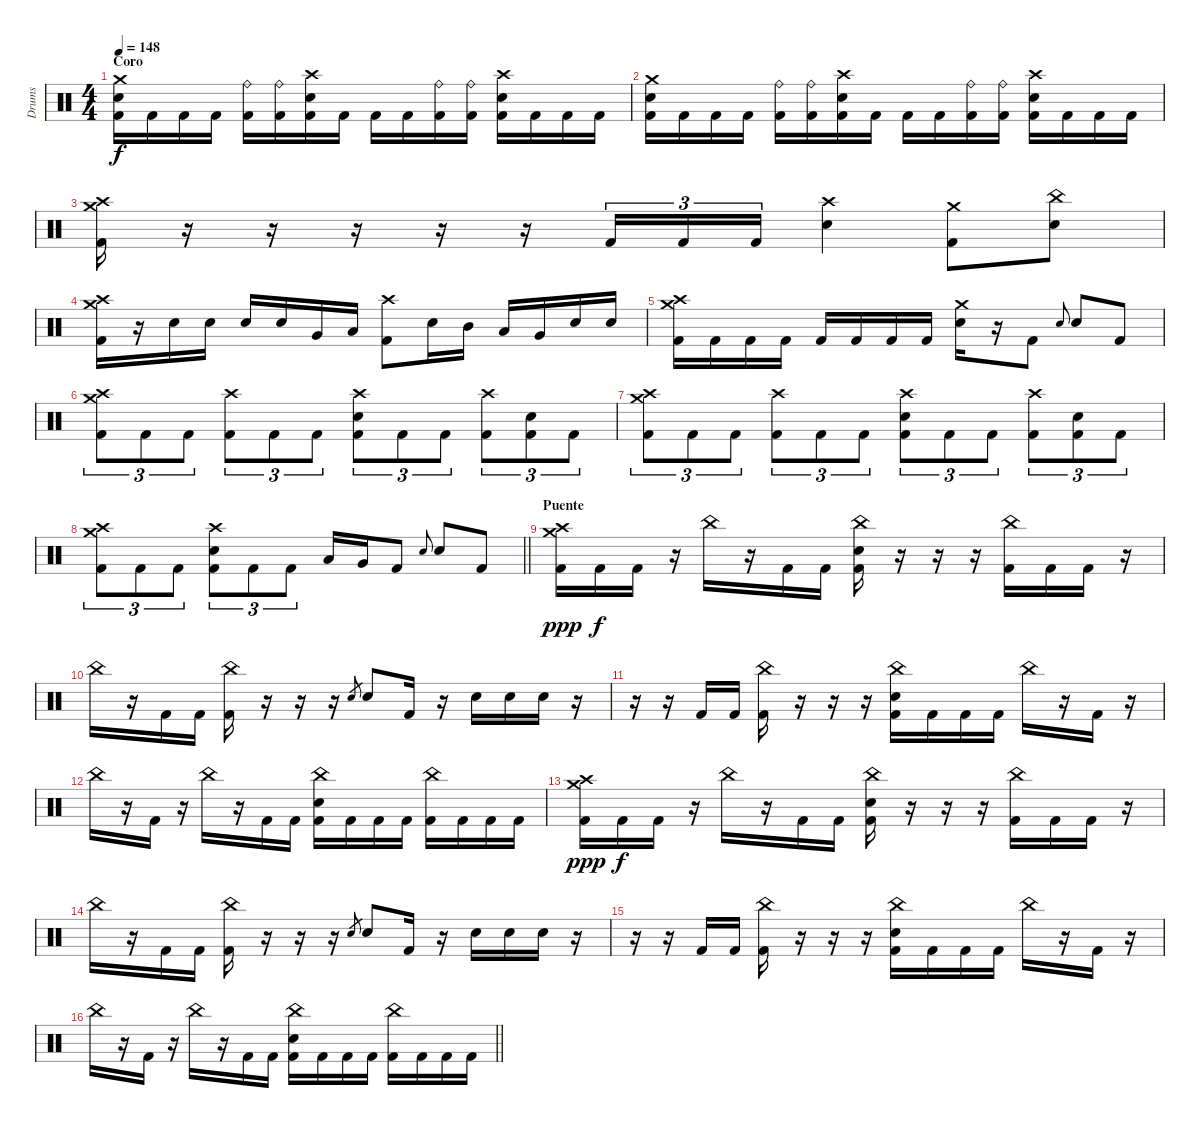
\track ("Drums" "Drums") {instrument percussion}
\staff {score}
\articulation defaults
\ts (4 4)
\section ("" "Coro")
\tempo 148
\clef neutral
\ks c
("Crash medium (hit)" "Electric Snare (hit)" "Kick (hit) 2").16{dy f} "Kick (hit) 2".16 "Kick (hit) 2".16 "Kick (hit) 2".16 ("Ride (bell)" "Kick (hit) 2").16 ("Ride (bell)" "Kick (hit) 2").16 ("Crash high (hit)" "Electric Snare (hit)" "Kick (hit) 2").16 "Kick (hit) 2".16 "Kick (hit) 2".16 "Kick (hit) 2".16 ("Ride (bell)" "Kick (hit) 2").16 ("Ride (bell)" "Kick (hit) 2").16 ("Crash high (hit)" "Electric Snare (hit)" "Kick (hit) 2").16 "Kick (hit) 2".16 "Kick (hit) 2".16 "Kick (hit) 2".16 |
("Crash medium (hit)" "Electric Snare (hit)" "Kick (hit) 2").16 "Kick (hit) 2".16 "Kick (hit) 2".16 "Kick (hit) 2".16 ("Ride (bell)" "Kick (hit) 2").16 ("Ride (bell)" "Kick (hit) 2").16 ("Crash high (hit)" "Electric Snare (hit)" "Kick (hit) 2").16 "Kick (hit) 2".16 "Kick (hit) 2".16 "Kick (hit) 2".16 ("Ride (bell)" "Kick (hit) 2").16 ("Ride (bell)" "Kick (hit) 2").16 ("Crash high (hit)" "Electric Snare (hit)" "Kick (hit) 2").16 "Kick (hit) 2".16 "Kick (hit) 2".16 "Kick (hit) 2".16 |
("Crash high (hit)" "Crash medium (hit)" "Kick (hit) 2").16 r.16 r.16 r.16 r.16 r.16 "Kick (hit) 2".16{tu (3 2)} "Kick (hit) 2".16{tu (3 2)} "Kick (hit) 2".16{tu (3 2)} ("Crash high (hit)" "Electric Snare (hit)").4 ("Crash medium (hit)" "Kick (hit) 2").8 ("China (hit)" "Electric Snare (hit)").8 |
("Crash medium (hit)" "Crash high (hit)" "Kick (hit) 2").16 r.16 "Electric Snare (hit)".16 "Electric Snare (hit)".16 "Electric Snare (hit)".16 "Electric Snare (hit)".16 "Very Low Tom (hit)".16 "Low Floor Tom (hit)".16 ("Crash high (hit)" "Kick (hit) 2").8 "Electric Snare (hit)".16 "Mid Tom (hit)".16 "Low Tom (hit)".16 "Very Low Tom (hit)".16 "Electric Snare (hit)".16 "Electric Snare (hit)".16 |
("Crash medium (hit)" "Crash high (hit)" "Kick (hit) 2").16 "Kick (hit) 2".16 "Kick (hit) 2".16 "Kick (hit) 2".16 "Kick (hit) 2".16 "Kick (hit) 2".16 "Kick (hit) 2".16 "Kick (hit) 2".16 ("Crash medium (hit)" "Electric Snare (hit)").16 r.16 "Kick (hit) 2".8 "Electric Snare (hit)".8{gr onbeat} "Electric Snare (hit)".8 "Kick (hit) 2".8 |
("Crash high (hit)" "Crash medium (hit)" "Kick (hit) 2").8{tu (3 2)} "Kick (hit) 2".8{tu (3 2)} "Kick (hit) 2".8{tu (3 2)} ("Crash high (hit)" "Kick (hit) 2").8{tu (3 2)} "Kick (hit) 2".8{tu (3 2)} "Kick (hit) 2".8{tu (3 2)} ("Crash high (hit)" "Electric Snare (hit)" "Kick (hit) 2").8{tu (3 2)} "Kick (hit) 2".8{tu (3 2)} "Kick (hit) 2".8{tu (3 2)} ("Crash high (hit)" "Kick (hit) 2").8{tu (3 2)} ("Electric Snare (hit)" "Kick (hit) 2").8{tu (3 2)} "Kick (hit) 2".8{tu (3 2)} |
("Crash high (hit)" "Crash medium (hit)" "Kick (hit) 2").8{tu (3 2)} "Kick (hit) 2".8{tu (3 2)} "Kick (hit) 2".8{tu (3 2)} ("Crash high (hit)" "Kick (hit) 2").8{tu (3 2)} "Kick (hit) 2".8{tu (3 2)} "Kick (hit) 2".8{tu (3 2)} ("Crash high (hit)" "Electric Snare (hit)" "Kick (hit) 2").8{tu (3 2)} "Kick (hit) 2".8{tu (3 2)} "Kick (hit) 2".8{tu (3 2)} ("Crash high (hit)" "Kick (hit) 2").8{tu (3 2)} ("Electric Snare (hit)" "Kick (hit) 2").8{tu (3 2)} "Kick (hit) 2".8{tu (3 2)} |
\barLineRight lightlight
("Crash high (hit)" "Crash medium (hit)" "Kick (hit) 2").8{tu (3 2)} "Kick (hit) 2".8{tu (3 2)} "Kick (hit) 2".8{tu (3 2)} ("Crash high (hit)" "Electric Snare (hit)" "Kick (hit) 2").8{tu (3 2)} "Kick (hit) 2".8{tu (3 2)} "Kick (hit) 2".8{tu (3 2)} "Low Tom (hit)".16 "Very Low Tom (hit)".16 "Kick (hit) 2".8 "Electric Snare (hit)".8{gr onbeat} "Electric Snare (hit)".8 "Kick (hit) 2".8 |
\section ("" "Puente ")
("Crash medium (hit)" "Crash high (hit)" "Kick (hit) 2").16{dy ppp} "Kick (hit) 2".16{dy f} "Kick (hit) 2".16 r.16 "China (hit)".16 r.16 "Kick (hit) 2".16 "Kick (hit) 2".16 ("China (hit)" "Electric Snare (hit)" "Kick (hit) 2").16 r.16 r.16 r.16 ("China (hit)" "Kick (hit) 2").16 "Kick (hit) 2".16 "Kick (hit) 2".16 r.16 |
"China (hit)".16 r.16 "Kick (hit) 2".16 "Kick (hit) 2".16 ("China (hit)" "Kick (hit) 2").16 r.16 r.16 r.16 "Electric Snare (hit)".8{gr} "Electric Snare (hit)".8 "Kick (hit) 2".16 r.16 "Electric Snare (hit)".16 "Electric Snare (hit)".16 "Electric Snare (hit)".16 r.16 |
r.16 r.16 "Kick (hit) 2".16 "Kick (hit) 2".16 ("China (hit)" "Kick (hit) 2").16 r.16 r.16 r.16 ("China (hit)" "Electric Snare (hit)" "Kick (hit) 2").16 "Kick (hit) 2".16 "Kick (hit) 2".16 "Kick (hit) 2".16 "China (hit)".16 r.16 "Kick (hit) 2".16 r.16 |
"China (hit)".16 r.16 "Kick (hit) 2".16 r.16 "China (hit)".16 r.16 "Kick (hit) 2".16 "Kick (hit) 2".16 ("China (hit)" "Electric Snare (hit)" "Kick (hit) 2").16 "Kick (hit) 2".16 "Kick (hit) 2".16 "Kick (hit) 2".16 ("China (hit)" "Kick (hit) 2").16 "Kick (hit) 2".16 "Kick (hit) 2".16 "Kick (hit) 2".16 |
("Crash medium (hit)" "Crash high (hit)" "Kick (hit) 2").16{dy ppp} "Kick (hit) 2".16{dy f} "Kick (hit) 2".16 r.16 "China (hit)".16 r.16 "Kick (hit) 2".16 "Kick (hit) 2".16 ("China (hit)" "Electric Snare (hit)" "Kick (hit) 2").16 r.16 r.16 r.16 ("China (hit)" "Kick (hit) 2").16 "Kick (hit) 2".16 "Kick (hit) 2".16 r.16 |
"China (hit)".16 r.16 "Kick (hit) 2".16 "Kick (hit) 2".16 ("China (hit)" "Kick (hit) 2").16 r.16 r.16 r.16 "Electric Snare (hit)".8{gr} "Electric Snare (hit)".8 "Kick (hit) 2".16 r.16 "Electric Snare (hit)".16 "Electric Snare (hit)".16 "Electric Snare (hit)".16 r.16 |
r.16 r.16 "Kick (hit) 2".16 "Kick (hit) 2".16 ("China (hit)" "Kick (hit) 2").16 r.16 r.16 r.16 ("China (hit)" "Electric Snare (hit)" "Kick (hit) 2").16 "Kick (hit) 2".16 "Kick (hit) 2".16 "Kick (hit) 2".16 "China (hit)".16 r.16 "Kick (hit) 2".16 r.16 |
\barLineRight lightlight "China (hit)".16
r.16 "Kick (hit) 2".16 r.16 "China (hit)".16 r.16 "Kick (hit) 2".16 "Kick (hit) 2".16 ("China (hit)" "Electric Snare (hit)" "Kick (hit) 2").16 "Kick (hit) 2".16 "Kick (hit) 2".16 "Kick (hit) 2".16 ("China (hit)" "Kick (hit) 2").16 "Kick (hit) 2".16 "Kick (hit) 2".16 "Kick (hit) 2".16
